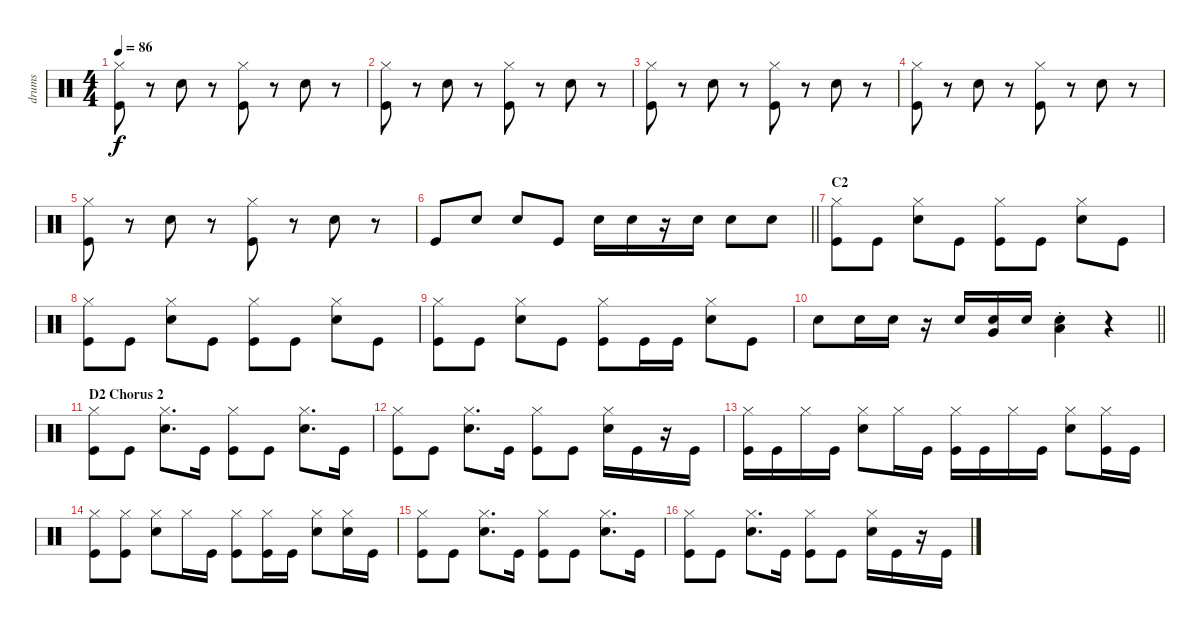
\track ("drums" "drums") {instrument percussion}
\staff {score}
\articulation defaults
\ts (4 4)
\tempo 86
\clef neutral
\ks c
("Hi-Hat (closed)" "Kick (hit)").8{dy f} r.8 "Snare (hit) 2".8 r.8 ("Hi-Hat (closed)" "Kick (hit)").8 r.8 "Snare (hit) 2".8 r.8 |
("Hi-Hat (closed)" "Kick (hit)").8 r.8 "Snare (hit) 2".8 r.8 ("Hi-Hat (closed)" "Kick (hit)").8 r.8 "Snare (hit) 2".8 r.8 |
("Hi-Hat (closed)" "Kick (hit)").8 r.8 "Snare (hit) 2".8 r.8 ("Hi-Hat (closed)" "Kick (hit)").8 r.8 "Snare (hit) 2".8 r.8 |
("Hi-Hat (closed)" "Kick (hit)").8 r.8 "Snare (hit) 2".8 r.8 ("Hi-Hat (closed)" "Kick (hit)").8 r.8 "Snare (hit) 2".8 r.8 |
("Hi-Hat (closed)" "Kick (hit)").8 r.8 "Snare (hit) 2".8 r.8 ("Hi-Hat (closed)" "Kick (hit)").8 r.8 "Snare (hit) 2".8 r.8 |
\barLineRight lightlight "Kick (hit)".8 "Snare (hit) 2".8 "Snare (hit) 2".8 "Kick (hit)".8 "Snare (hit) 2".16 "Snare (hit) 2".16
r.16 "Snare (hit) 2".16 "Snare (hit) 2".8 "Snare (hit) 2".8 |
\section ("" "C2")
("Hi-Hat (closed)" "Kick (hit)").8 "Kick (hit)".8 ("Snare (hit) 2" "Hi-Hat (closed)").8 "Kick (hit)".8 ("Hi-Hat (closed)" "Kick (hit)").8 "Kick (hit)".8 ("Snare (hit) 2" "Hi-Hat (closed)").8 "Kick (hit)".8 |
("Hi-Hat (closed)" "Kick (hit)").8 "Kick (hit)".8 ("Snare (hit) 2" "Hi-Hat (closed)").8 "Kick (hit)".8 ("Hi-Hat (closed)" "Kick (hit)").8 "Kick (hit)".8 ("Snare (hit) 2" "Hi-Hat (closed)").8 "Kick (hit)".8 |
("Hi-Hat (closed)" "Kick (hit)").8 "Kick (hit)".8 ("Snare (hit) 2" "Hi-Hat (closed)").8 "Kick (hit)".8 ("Hi-Hat (closed)" "Kick (hit)").8 "Kick (hit)".16 "Kick (hit)".16 ("Snare (hit) 2" "Hi-Hat (closed)").8 "Kick (hit)".8 |
\barLineRight lightlight "Snare (hit) 2".8 "Snare (hit) 2".16 "Snare (hit) 2".16
r.16 "Snare (hit) 2".16 ("Very Low Tom (hit)" "Snare (hit) 2").16 "Snare (hit) 2".16 ("Low Tom (hit)" "Snare (hit) 2"{st}).4 r.4 |
\section ("" "D2 Chorus 2")
("Hi-Hat (closed)" "Kick (hit)").8 "Kick (hit)".8 ("Snare (hit) 2" "Hi-Hat (closed)").8{d} "Kick (hit)".16 ("Hi-Hat (closed)" "Kick (hit)").8 "Kick (hit)".8 ("Snare (hit) 2" "Hi-Hat (closed)").8{d} "Kick (hit)".16 |
("Hi-Hat (closed)" "Kick (hit)").8 "Kick (hit)".8 ("Snare (hit) 2" "Hi-Hat (closed)").8{d} "Kick (hit)".16 ("Hi-Hat (closed)" "Kick (hit)").8 "Kick (hit)".8 ("Snare (hit) 2" "Hi-Hat (closed)").16 "Kick (hit)".16 r.16 "Kick (hit)".16 |
("Hi-Hat (closed)" "Kick (hit)").16 "Kick (hit)".16 "Hi-Hat (closed)".16 "Kick (hit)".16 ("Snare (hit) 2" "Hi-Hat (closed)").8 "Hi-Hat (closed)".16 "Kick (hit)".16 ("Hi-Hat (closed)" "Kick (hit)").16 "Kick (hit)".16 "Hi-Hat (closed)".16 "Kick (hit)".16 ("Snare (hit) 2" "Hi-Hat (closed)").8 ("Hi-Hat (closed)" "Kick (hit)").16 "Kick (hit)".16 |
("Hi-Hat (closed)" "Kick (hit)").8 ("Hi-Hat (closed)" "Kick (hit)").8 ("Snare (hit) 2" "Hi-Hat (closed)").8 "Hi-Hat (closed)".16 "Kick (hit)".16 ("Hi-Hat (closed)" "Kick (hit)").8 ("Hi-Hat (closed)" "Kick (hit)").16 "Kick (hit)".16 ("Snare (hit) 2" "Hi-Hat (closed)").8 ("Snare (hit) 2" "Hi-Hat (closed)").16 "Kick (hit)".16 |
("Hi-Hat (closed)" "Kick (hit)").8 "Kick (hit)".8 ("Snare (hit) 2" "Hi-Hat (closed)").8{d} "Kick (hit)".16 ("Hi-Hat (closed)" "Kick (hit)").8 "Kick (hit)".8 ("Snare (hit) 2" "Hi-Hat (closed)").8{d} "Kick (hit)".16 |
("Hi-Hat (closed)" "Kick (hit)").8 "Kick (hit)".8 ("Snare (hit) 2" "Hi-Hat (closed)").8{d} "Kick (hit)".16 ("Hi-Hat (closed)" "Kick (hit)").8 "Kick (hit)".8 ("Snare (hit) 2" "Hi-Hat (closed)").16 "Kick (hit)".16 r.16 "Kick (hit)".16
